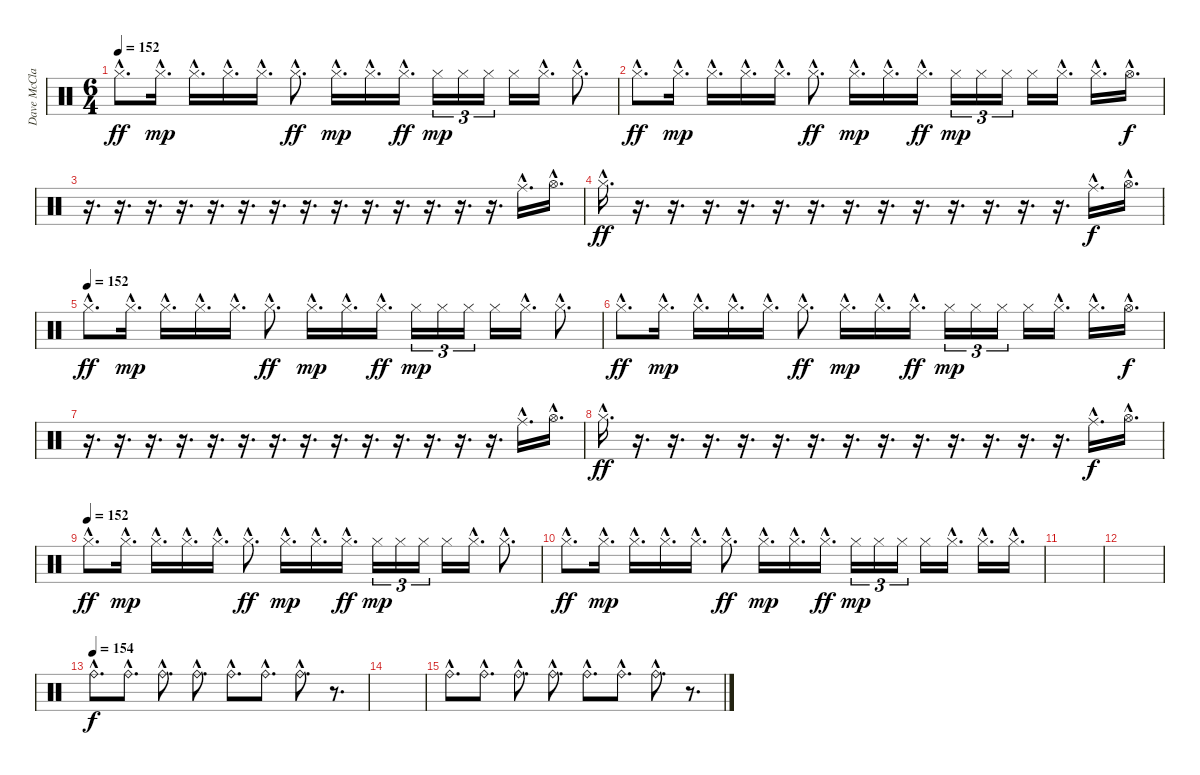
\track ("Dave McClain" "Dave McCla") {instrument percussion}
\staff {score}
\articulation defaults
\ts (6 4)
\tempo 152
\clef neutral
\ks c "Hi-Hat (closed)"{hac}.8{d dy ff} "Hi-Hat (closed)"{hac}.16{d dy mp} "Hi-Hat (closed)"{hac}.16{d} "Hi-Hat (closed)"{hac}.16{d} "Hi-Hat (closed)"{hac}.16{d} "Hi-Hat (closed)"{hac}.8{d dy ff} "Hi-Hat (closed)"{hac}.16{d dy mp} "Hi-Hat (closed)"{hac}.16{d} "Hi-Hat (closed)"{hac}.16{d dy ff} "Hi-Hat (closed)".16{tu (3 2) dy mp} "Hi-Hat (closed)".16{tu (3 2)} "Hi-Hat (closed)".16{tu (3 2)} "Hi-Hat (closed)".16 "Hi-Hat (closed)"{hac}.16{d} "Hi-Hat (closed)"{hac}.8{d}
|
"Hi-Hat (closed)"{hac}.8{d dy ff} "Hi-Hat (closed)"{hac}.16{d dy mp} "Hi-Hat (closed)"{hac}.16{d} "Hi-Hat (closed)"{hac}.16{d} "Hi-Hat (closed)"{hac}.16{d} "Hi-Hat (closed)"{hac}.8{d dy ff} "Hi-Hat (closed)"{hac}.16{d dy mp} "Hi-Hat (closed)"{hac}.16{d} "Hi-Hat (closed)"{hac}.16{d dy ff} "Hi-Hat (closed)".16{tu (3 2) dy mp} "Hi-Hat (closed)".16{tu (3 2)} "Hi-Hat (closed)".16{tu (3 2)} "Hi-Hat (closed)".16 "Hi-Hat (closed)"{hac}.16{d} "Hi-Hat (closed)"{hac}.16{d} "Hi-Hat (open)"{hac}.16{d dy f} |
r.16{d} r.16{d} r.16{d} r.16{d} r.16{d} r.16{d} r.16{d} r.16{d} r.16{d} r.16{d} r.16{d} r.16{d} r.16{d} r.16{d} "Ride (middle)"{hac}.16{d} "Hi-Hat (open)"{hac}.16{d} |
"Hi-Hat (closed)"{hac}.16{d dy ff} r.16{d} r.16{d} r.16{d} r.16{d} r.16{d} r.16{d} r.16{d} r.16{d} r.16{d} r.16{d} r.16{d} r.16{d} r.16{d} "Ride (middle)"{hac}.16{d dy f} "Hi-Hat (open)"{hac}.16{d} |
\tempo (152)
"Hi-Hat (closed)"{hac}.8{d dy ff} "Hi-Hat (closed)"{hac}.16{d dy mp} "Hi-Hat (closed)"{hac}.16{d} "Hi-Hat (closed)"{hac}.16{d} "Hi-Hat (closed)"{hac}.16{d} "Hi-Hat (closed)"{hac}.8{d dy ff} "Hi-Hat (closed)"{hac}.16{d dy mp} "Hi-Hat (closed)"{hac}.16{d} "Hi-Hat (closed)"{hac}.16{d dy ff} "Hi-Hat (closed)".16{tu (3 2) dy mp} "Hi-Hat (closed)".16{tu (3 2)} "Hi-Hat (closed)".16{tu (3 2)} "Hi-Hat (closed)".16 "Hi-Hat (closed)"{hac}.16{d} "Hi-Hat (closed)"{hac}.8{d} |
"Hi-Hat (closed)"{hac}.8{d dy ff} "Hi-Hat (closed)"{hac}.16{d dy mp} "Hi-Hat (closed)"{hac}.16{d} "Hi-Hat (closed)"{hac}.16{d} "Hi-Hat (closed)"{hac}.16{d} "Hi-Hat (closed)"{hac}.8{d dy ff} "Hi-Hat (closed)"{hac}.16{d dy mp} "Hi-Hat (closed)"{hac}.16{d} "Hi-Hat (closed)"{hac}.16{d dy ff} "Hi-Hat (closed)".16{tu (3 2) dy mp} "Hi-Hat (closed)".16{tu (3 2)} "Hi-Hat (closed)".16{tu (3 2)} "Hi-Hat (closed)".16 "Hi-Hat (closed)"{hac}.16{d} "Hi-Hat (closed)"{hac}.16{d} "Hi-Hat (open)"{hac}.16{d dy f} |
r.16{d} r.16{d} r.16{d} r.16{d} r.16{d} r.16{d} r.16{d} r.16{d} r.16{d} r.16{d} r.16{d} r.16{d} r.16{d} r.16{d} "Ride (middle)"{hac}.16{d} "Hi-Hat (open)"{hac}.16{d} |
"Hi-Hat (closed)"{hac}.16{d dy ff} r.16{d} r.16{d} r.16{d} r.16{d} r.16{d} r.16{d} r.16{d} r.16{d} r.16{d} r.16{d} r.16{d} r.16{d} r.16{d} "Ride (middle)"{hac}.16{d dy f} "Hi-Hat (open)"{hac}.16{d} |
\tempo 156
\tempo (152)
"Hi-Hat (closed)"{hac}.8{d dy ff} "Hi-Hat (closed)"{hac}.16{d dy mp} "Hi-Hat (closed)"{hac}.16{d} "Hi-Hat (closed)"{hac}.16{d} "Hi-Hat (closed)"{hac}.16{d} "Hi-Hat (closed)"{hac}.8{d dy ff} "Hi-Hat (closed)"{hac}.16{d dy mp} "Hi-Hat (closed)"{hac}.16{d} "Hi-Hat (closed)"{hac}.16{d dy ff} "Hi-Hat (closed)".16{tu (3 2) dy mp} "Hi-Hat (closed)".16{tu (3 2)} "Hi-Hat (closed)".16{tu (3 2)} "Hi-Hat (closed)".16 "Hi-Hat (closed)"{hac}.16{d} "Hi-Hat (closed)"{hac}.8{d} |
"Hi-Hat (closed)"{hac}.8{d dy ff} "Hi-Hat (closed)"{hac}.16{d dy mp} "Hi-Hat (closed)"{hac}.16{d} "Hi-Hat (closed)"{hac}.16{d} "Hi-Hat (closed)"{hac}.16{d} "Hi-Hat (closed)"{hac}.8{d dy ff} "Hi-Hat (closed)"{hac}.16{d dy mp} "Hi-Hat (closed)"{hac}.16{d} "Hi-Hat (closed)"{hac}.16{d dy ff} "Hi-Hat (closed)".16{tu (3 2) dy mp} "Hi-Hat (closed)".16{tu (3 2)} "Hi-Hat (closed)".16{tu (3 2)} "Hi-Hat (closed)".16 "Hi-Hat (closed)"{hac}.16{d} "Hi-Hat (closed)"{hac}.16{d} "Hi-Hat (closed)"{hac}.16{d} |
|
|
\tempo (154)
"Ride (bell)"{hac}.8{d dy f} "Ride (bell)"{hac}.8{d} "Ride (bell)"{hac}.8{d} "Ride (bell)"{hac}.8{d} "Ride (bell)"{hac}.8{d} "Ride (bell)"{hac}.8{d} "Ride (bell)"{hac}.8{d} r.8{d} |
|
"Ride (bell)"{hac}.8{d} "Ride (bell)"{hac}.8{d} "Ride (bell)"{hac}.8{d} "Ride (bell)"{hac}.8{d} "Ride (bell)"{hac}.8{d} "Ride (bell)"{hac}.8{d} "Ride (bell)"{hac}.8{d} r.8{d}
